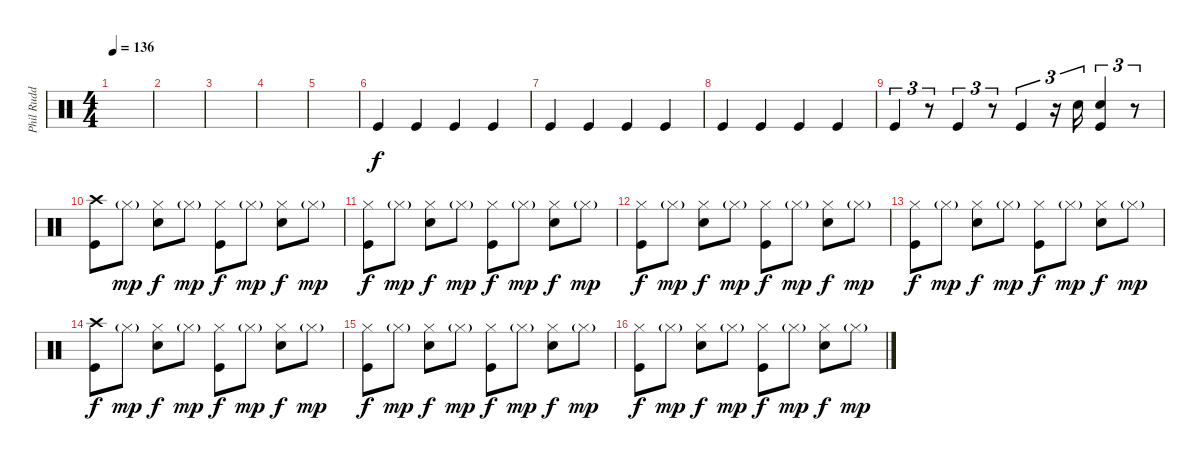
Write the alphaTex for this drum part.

\track ("Phil Rudd" "Phil Rudd") {instrument percussion}
\staff {score}
\articulation defaults
\ts (4 4)
\tempo 136
\clef neutral
\ks c
|
|
|
|
|
"Kick (hit)".4 "Kick (hit)".4 "Kick (hit)".4 "Kick (hit)".4 |
"Kick (hit)".4 "Kick (hit)".4 "Kick (hit)".4 "Kick (hit)".4 |
"Kick (hit)".4 "Kick (hit)".4 "Kick (hit)".4 "Kick (hit)".4 |
"Kick (hit)".4{tu (3 2)} r.8{tu (3 2)} "Kick (hit)".4{tu (3 2)} r.8{tu (3 2)} "Kick (hit)".4{tu (3 2)} r.16{tu (3 2)} "Electric Snare (hit)".16{tu (3 2)} ("Electric Snare (hit)" "Kick (hit)").4{tu (3 2)} r.8{tu (3 2)} |
("Crash high (hit)" "Kick (hit)").8 "Hi-Hat (closed)"{g}.8{dy mp} ("Hi-Hat (closed)" "Electric Snare (hit)").8{dy f} "Hi-Hat (closed)"{g}.8{dy mp} ("Hi-Hat (closed)" "Kick (hit)").8{dy f} "Hi-Hat (closed)"{g}.8{dy mp} ("Hi-Hat (closed)" "Electric Snare (hit)").8{dy f} "Hi-Hat (closed)"{g}.8{dy mp} |
("Hi-Hat (closed)" "Kick (hit)").8{dy f} "Hi-Hat (closed)"{g}.8{dy mp} ("Hi-Hat (closed)" "Electric Snare (hit)").8{dy f} "Hi-Hat (closed)"{g}.8{dy mp} ("Hi-Hat (closed)" "Kick (hit)").8{dy f} "Hi-Hat (closed)"{g}.8{dy mp} ("Hi-Hat (closed)" "Electric Snare (hit)").8{dy f} "Hi-Hat (closed)"{g}.8{dy mp} |
("Hi-Hat (closed)" "Kick (hit)").8{dy f} "Hi-Hat (closed)"{g}.8{dy mp} ("Hi-Hat (closed)" "Electric Snare (hit)").8{dy f} "Hi-Hat (closed)"{g}.8{dy mp} ("Hi-Hat (closed)" "Kick (hit)").8{dy f} "Hi-Hat (closed)"{g}.8{dy mp} ("Hi-Hat (closed)" "Electric Snare (hit)").8{dy f} "Hi-Hat (closed)"{g}.8{dy mp} |
("Hi-Hat (closed)" "Kick (hit)").8{dy f} "Hi-Hat (closed)"{g}.8{dy mp} ("Hi-Hat (closed)" "Electric Snare (hit)").8{dy f} "Hi-Hat (closed)"{g}.8{dy mp} ("Hi-Hat (closed)" "Kick (hit)").8{dy f} "Hi-Hat (closed)"{g}.8{dy mp} ("Hi-Hat (closed)" "Electric Snare (hit)").8{dy f} "Hi-Hat (closed)"{g}.8{dy mp} |
("Crash high (hit)" "Kick (hit)").8{dy f} "Hi-Hat (closed)"{g}.8{dy mp} ("Hi-Hat (closed)" "Electric Snare (hit)").8{dy f} "Hi-Hat (closed)"{g}.8{dy mp} ("Hi-Hat (closed)" "Kick (hit)").8{dy f} "Hi-Hat (closed)"{g}.8{dy mp} ("Hi-Hat (closed)" "Electric Snare (hit)").8{dy f} "Hi-Hat (closed)"{g}.8{dy mp} |
("Hi-Hat (closed)" "Kick (hit)").8{dy f} "Hi-Hat (closed)"{g}.8{dy mp} ("Hi-Hat (closed)" "Electric Snare (hit)").8{dy f} "Hi-Hat (closed)"{g}.8{dy mp} ("Hi-Hat (closed)" "Kick (hit)").8{dy f} "Hi-Hat (closed)"{g}.8{dy mp} ("Hi-Hat (closed)" "Electric Snare (hit)").8{dy f} "Hi-Hat (closed)"{g}.8{dy mp} |
("Hi-Hat (closed)" "Kick (hit)").8{dy f} "Hi-Hat (closed)"{g}.8{dy mp} ("Hi-Hat (closed)" "Electric Snare (hit)").8{dy f} "Hi-Hat (closed)"{g}.8{dy mp} ("Hi-Hat (closed)" "Kick (hit)").8{dy f} "Hi-Hat (closed)"{g}.8{dy mp} ("Hi-Hat (closed)" "Electric Snare (hit)").8{dy f} "Hi-Hat (closed)"{g}.8{dy mp}
